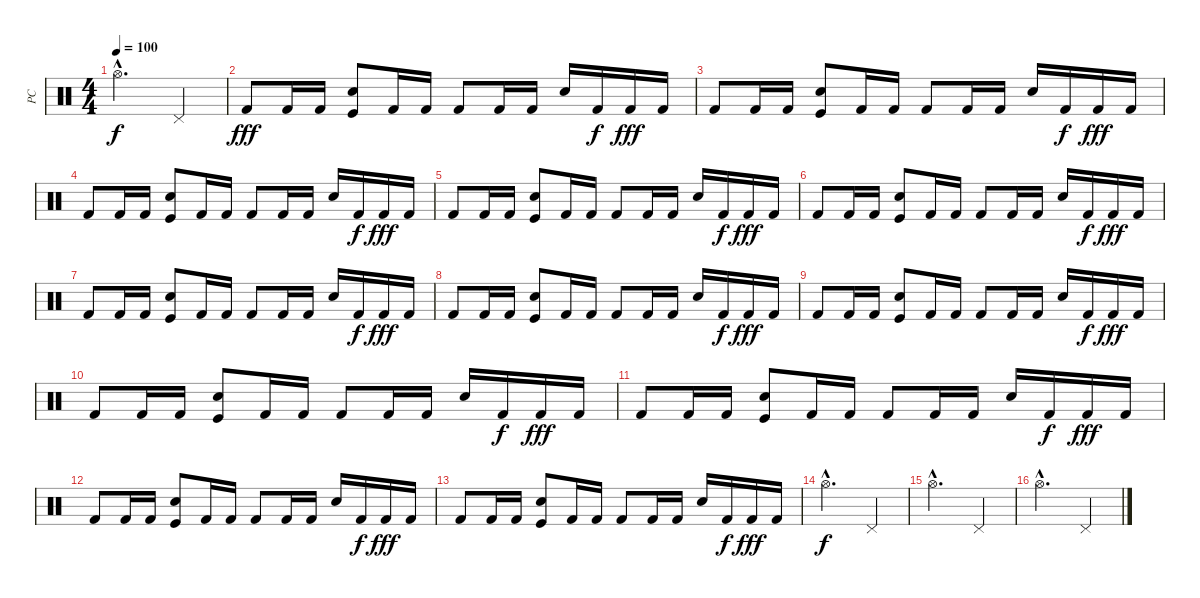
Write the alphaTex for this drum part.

\track ("PC" "PC") {instrument percussion}
\staff {score}
\articulation defaults
\ts (4 4)
\tempo 100
\clef neutral
\ks c "Hi-Hat (open)"{hac}.2{d dy f} "Pedal Hi-Hat (hit)".4
|
"Kick (hit) 2".8{dy fff} "Kick (hit) 2".16 "Kick (hit) 2".16 ("Kick (hit)" "Electric Snare (hit)").8 "Kick (hit) 2".16 "Kick (hit) 2".16 "Kick (hit) 2".8 "Kick (hit) 2".16 "Kick (hit) 2".16 "Electric Snare (hit)".16 "Kick (hit) 2".16{dy f} "Kick (hit) 2".16{dy fff} "Kick (hit) 2".16 |
"Kick (hit) 2".8 "Kick (hit) 2".16 "Kick (hit) 2".16 ("Kick (hit)" "Electric Snare (hit)").8 "Kick (hit) 2".16 "Kick (hit) 2".16 "Kick (hit) 2".8 "Kick (hit) 2".16 "Kick (hit) 2".16 "Electric Snare (hit)".16 "Kick (hit) 2".16{dy f} "Kick (hit) 2".16{dy fff} "Kick (hit) 2".16 |
"Kick (hit) 2".8 "Kick (hit) 2".16 "Kick (hit) 2".16 ("Kick (hit)" "Electric Snare (hit)").8 "Kick (hit) 2".16 "Kick (hit) 2".16 "Kick (hit) 2".8 "Kick (hit) 2".16 "Kick (hit) 2".16 "Electric Snare (hit)".16 "Kick (hit) 2".16{dy f} "Kick (hit) 2".16{dy fff} "Kick (hit) 2".16 |
"Kick (hit) 2".8 "Kick (hit) 2".16 "Kick (hit) 2".16 ("Kick (hit)" "Electric Snare (hit)").8 "Kick (hit) 2".16 "Kick (hit) 2".16 "Kick (hit) 2".8 "Kick (hit) 2".16 "Kick (hit) 2".16 "Electric Snare (hit)".16 "Kick (hit) 2".16{dy f} "Kick (hit) 2".16{dy fff} "Kick (hit) 2".16 |
"Kick (hit) 2".8 "Kick (hit) 2".16 "Kick (hit) 2".16 ("Kick (hit)" "Electric Snare (hit)").8 "Kick (hit) 2".16 "Kick (hit) 2".16 "Kick (hit) 2".8 "Kick (hit) 2".16 "Kick (hit) 2".16 "Electric Snare (hit)".16 "Kick (hit) 2".16{dy f} "Kick (hit) 2".16{dy fff} "Kick (hit) 2".16 |
"Kick (hit) 2".8 "Kick (hit) 2".16 "Kick (hit) 2".16 ("Kick (hit)" "Electric Snare (hit)").8 "Kick (hit) 2".16 "Kick (hit) 2".16 "Kick (hit) 2".8 "Kick (hit) 2".16 "Kick (hit) 2".16 "Electric Snare (hit)".16 "Kick (hit) 2".16{dy f} "Kick (hit) 2".16{dy fff} "Kick (hit) 2".16 |
"Kick (hit) 2".8 "Kick (hit) 2".16 "Kick (hit) 2".16 ("Kick (hit)" "Electric Snare (hit)").8 "Kick (hit) 2".16 "Kick (hit) 2".16 "Kick (hit) 2".8 "Kick (hit) 2".16 "Kick (hit) 2".16 "Electric Snare (hit)".16 "Kick (hit) 2".16{dy f} "Kick (hit) 2".16{dy fff} "Kick (hit) 2".16 |
"Kick (hit) 2".8 "Kick (hit) 2".16 "Kick (hit) 2".16 ("Kick (hit)" "Electric Snare (hit)").8 "Kick (hit) 2".16 "Kick (hit) 2".16 "Kick (hit) 2".8 "Kick (hit) 2".16 "Kick (hit) 2".16 "Electric Snare (hit)".16 "Kick (hit) 2".16{dy f} "Kick (hit) 2".16{dy fff} "Kick (hit) 2".16 |
"Kick (hit) 2".8 "Kick (hit) 2".16 "Kick (hit) 2".16 ("Kick (hit)" "Electric Snare (hit)").8 "Kick (hit) 2".16 "Kick (hit) 2".16 "Kick (hit) 2".8 "Kick (hit) 2".16 "Kick (hit) 2".16 "Electric Snare (hit)".16 "Kick (hit) 2".16{dy f} "Kick (hit) 2".16{dy fff} "Kick (hit) 2".16 |
"Kick (hit) 2".8 "Kick (hit) 2".16 "Kick (hit) 2".16 ("Kick (hit)" "Electric Snare (hit)").8 "Kick (hit) 2".16 "Kick (hit) 2".16 "Kick (hit) 2".8 "Kick (hit) 2".16 "Kick (hit) 2".16 "Electric Snare (hit)".16 "Kick (hit) 2".16{dy f} "Kick (hit) 2".16{dy fff} "Kick (hit) 2".16 |
"Kick (hit) 2".8 "Kick (hit) 2".16 "Kick (hit) 2".16 ("Kick (hit)" "Electric Snare (hit)").8 "Kick (hit) 2".16 "Kick (hit) 2".16 "Kick (hit) 2".8 "Kick (hit) 2".16 "Kick (hit) 2".16 "Electric Snare (hit)".16 "Kick (hit) 2".16{dy f} "Kick (hit) 2".16{dy fff} "Kick (hit) 2".16 |
"Kick (hit) 2".8 "Kick (hit) 2".16 "Kick (hit) 2".16 ("Kick (hit)" "Electric Snare (hit)").8 "Kick (hit) 2".16 "Kick (hit) 2".16 "Kick (hit) 2".8 "Kick (hit) 2".16 "Kick (hit) 2".16 "Electric Snare (hit)".16 "Kick (hit) 2".16{dy f} "Kick (hit) 2".16{dy fff} "Kick (hit) 2".16 |
"Hi-Hat (open)"{hac}.2{d dy f} "Pedal Hi-Hat (hit)".4 |
"Hi-Hat (open)"{hac}.2{d} "Pedal Hi-Hat (hit)".4 |
"Hi-Hat (open)"{hac}.2{d} "Pedal Hi-Hat (hit)".4
